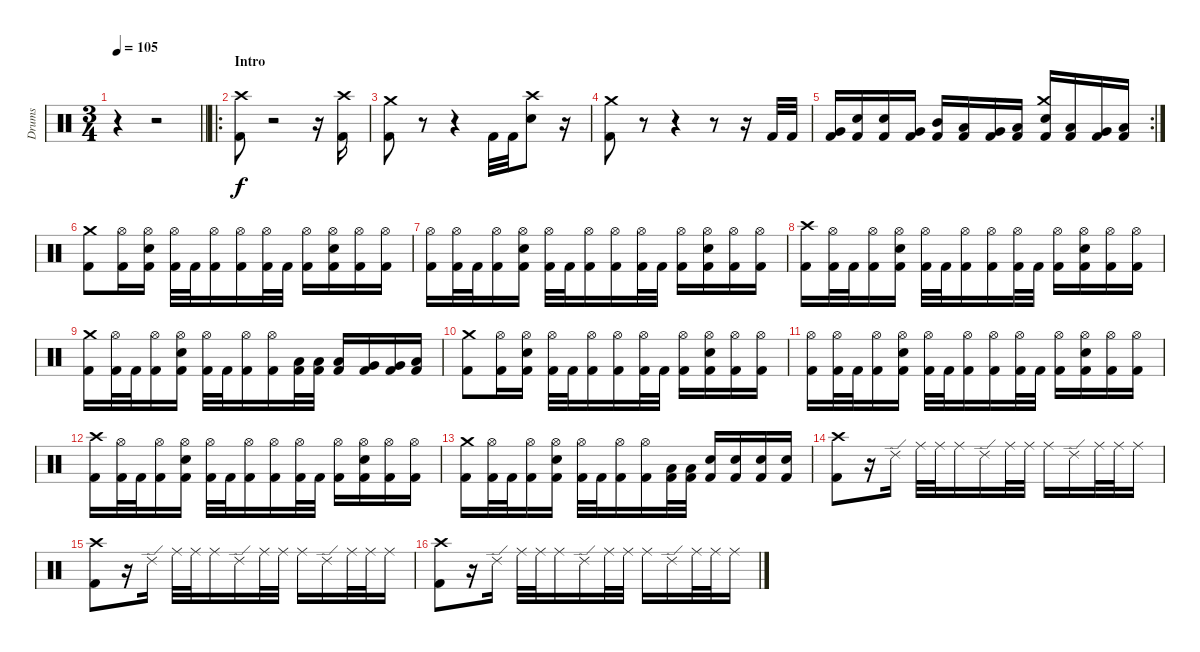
\track ("Drums" "Drums") {instrument percussion}
\staff {score}
\articulation defaults
\ts (3 4)
\tempo 105
\clef neutral
\barLineRight lightlight
\ks c
r.4{dy f} r.2 |
\ro
\section ("" "Intro")
("Kick (hit) 2" "Crash high (hit)").8 r.2 r.16 ("Kick (hit) 2" "Crash high (hit)").16 |
("Kick (hit) 2" "Crash medium (hit)").8 r.8 r.4 "Kick (hit) 2".32 "Kick (hit) 2".32 ("Electric Snare (hit)" "Crash high (hit)").8 r.16 |
("Kick (hit) 2" "Crash medium (hit)").8 r.8 r.4 r.8 r.16 "Kick (hit) 2".32 "Kick (hit) 2".32 |
\rc 2
("Kick (hit) 2" "Very Low Tom (hit)").16 ("Kick (hit) 2" "Electric Snare (hit)").16 ("Kick (hit) 2" "Electric Snare (hit)").16 ("Kick (hit) 2" "Very Low Tom (hit)").16 ("Kick (hit) 2" "Mid Tom (hit)").16 ("Kick (hit) 2" "Low Tom (hit)").16 ("Kick (hit) 2" "Very Low Tom (hit)").16 ("Kick (hit) 2" "Low Tom (hit)").16 ("Kick (hit) 2" "Electric Snare (hit)" "Crash medium (hit)").16 ("Kick (hit) 2" "Low Tom (hit)").16 ("Kick (hit) 2" "Very Low Tom (hit)").16 ("Kick (hit) 2" "Low Floor Tom (hit)").16 |
("Kick (hit) 2" "Crash medium (hit)").8 ("Kick (hit) 2" "Hi-Hat (open)").16 ("Kick (hit) 2" "Electric Snare (hit)" "Hi-Hat (open)").16 ("Kick (hit) 2" "Hi-Hat (open)").32 "Kick (hit) 2".32 ("Kick (hit) 2" "Hi-Hat (open)").16 ("Kick (hit) 2" "Hi-Hat (open)").16 ("Kick (hit) 2" "Hi-Hat (open)").32 "Kick (hit) 2".32 ("Kick (hit) 2" "Hi-Hat (open)").16 ("Kick (hit) 2" "Electric Snare (hit)" "Hi-Hat (open)").16 ("Kick (hit) 2" "Hi-Hat (open)").16 ("Kick (hit) 2" "Hi-Hat (open)").16 |
("Kick (hit) 2" "Hi-Hat (open)").16 ("Kick (hit) 2" "Hi-Hat (open)").32 "Kick (hit) 2".32 ("Kick (hit) 2" "Hi-Hat (open)").16 ("Kick (hit) 2" "Electric Snare (hit)" "Hi-Hat (open)").16 ("Kick (hit) 2" "Hi-Hat (open)").32 "Kick (hit) 2".32 ("Kick (hit) 2" "Hi-Hat (open)").16 ("Kick (hit) 2" "Hi-Hat (open)").16 ("Kick (hit) 2" "Hi-Hat (open)").32 "Kick (hit) 2".32 ("Kick (hit) 2" "Hi-Hat (open)").16 ("Kick (hit) 2" "Electric Snare (hit)" "Hi-Hat (open)").16 ("Kick (hit) 2" "Hi-Hat (open)").16 ("Kick (hit) 2" "Hi-Hat (open)").16 |
("Kick (hit) 2" "Crash high (hit)").16 ("Kick (hit) 2" "Hi-Hat (open)").32 "Kick (hit) 2".32 ("Kick (hit) 2" "Hi-Hat (open)").16 ("Kick (hit) 2" "Electric Snare (hit)" "Hi-Hat (open)").16 ("Kick (hit) 2" "Hi-Hat (open)").32 "Kick (hit) 2".32 ("Kick (hit) 2" "Hi-Hat (open)").16 ("Kick (hit) 2" "Hi-Hat (open)").16 ("Kick (hit) 2" "Hi-Hat (open)").32 "Kick (hit) 2".32 ("Kick (hit) 2" "Hi-Hat (open)").16 ("Kick (hit) 2" "Electric Snare (hit)" "Hi-Hat (open)").16 ("Kick (hit) 2" "Hi-Hat (open)").16 ("Kick (hit) 2" "Hi-Hat (open)").16 |
("Kick (hit) 2" "Crash medium (hit)").16 ("Kick (hit) 2" "Hi-Hat (open)").32 "Kick (hit) 2".32 ("Kick (hit) 2" "Hi-Hat (open)").16 ("Kick (hit) 2" "Electric Snare (hit)" "Hi-Hat (open)").16 ("Kick (hit) 2" "Hi-Hat (open)").32 "Kick (hit) 2".32 ("Kick (hit) 2" "Hi-Hat (open)").16 ("Kick (hit) 2" "Hi-Hat (open)").16 ("Kick (hit) 2" "Low Tom (hit)").32 ("Kick (hit) 2" "Low Tom (hit)").32 ("Kick (hit) 2" "Low Tom (hit)").16 ("Kick (hit) 2" "Very Low Tom (hit)").16 ("Kick (hit) 2" "Very Low Tom (hit)").16 ("Kick (hit) 2" "Low Floor Tom (hit)").16 |
("Kick (hit) 2" "Crash medium (hit)").8 ("Kick (hit) 2" "Hi-Hat (open)").16 ("Kick (hit) 2" "Electric Snare (hit)" "Hi-Hat (open)").16 ("Kick (hit) 2" "Hi-Hat (open)").32 "Kick (hit) 2".32 ("Kick (hit) 2" "Hi-Hat (open)").16 ("Kick (hit) 2" "Hi-Hat (open)").16 ("Kick (hit) 2" "Hi-Hat (open)").32 "Kick (hit) 2".32 ("Kick (hit) 2" "Hi-Hat (open)").16 ("Kick (hit) 2" "Electric Snare (hit)" "Hi-Hat (open)").16 ("Kick (hit) 2" "Hi-Hat (open)").16 ("Kick (hit) 2" "Hi-Hat (open)").16 |
("Kick (hit) 2" "Hi-Hat (open)").16 ("Kick (hit) 2" "Hi-Hat (open)").32 "Kick (hit) 2".32 ("Kick (hit) 2" "Hi-Hat (open)").16 ("Kick (hit) 2" "Electric Snare (hit)" "Hi-Hat (open)").16 ("Kick (hit) 2" "Hi-Hat (open)").32 "Kick (hit) 2".32 ("Kick (hit) 2" "Hi-Hat (open)").16 ("Kick (hit) 2" "Hi-Hat (open)").16 ("Kick (hit) 2" "Hi-Hat (open)").32 "Kick (hit) 2".32 ("Kick (hit) 2" "Hi-Hat (open)").16 ("Kick (hit) 2" "Electric Snare (hit)" "Hi-Hat (open)").16 ("Kick (hit) 2" "Hi-Hat (open)").16 ("Kick (hit) 2" "Hi-Hat (open)").16 |
("Kick (hit) 2" "Crash high (hit)").16 ("Kick (hit) 2" "Hi-Hat (open)").32 "Kick (hit) 2".32 ("Kick (hit) 2" "Hi-Hat (open)").16 ("Kick (hit) 2" "Electric Snare (hit)" "Hi-Hat (open)").16 ("Kick (hit) 2" "Hi-Hat (open)").32 "Kick (hit) 2".32 ("Kick (hit) 2" "Hi-Hat (open)").16 ("Kick (hit) 2" "Hi-Hat (open)").16 ("Kick (hit) 2" "Hi-Hat (open)").32 "Kick (hit) 2".32 ("Kick (hit) 2" "Hi-Hat (open)").16 ("Kick (hit) 2" "Electric Snare (hit)" "Hi-Hat (open)").16 ("Kick (hit) 2" "Hi-Hat (open)").16 ("Kick (hit) 2" "Hi-Hat (open)").16 |
("Kick (hit) 2" "Crash medium (hit)").16 ("Kick (hit) 2" "Hi-Hat (open)").32 "Kick (hit) 2".32 ("Kick (hit) 2" "Hi-Hat (open)").16 ("Kick (hit) 2" "Electric Snare (hit)" "Hi-Hat (open)").16 ("Kick (hit) 2" "Hi-Hat (open)").32 "Kick (hit) 2".32 ("Kick (hit) 2" "Hi-Hat (open)").16 ("Kick (hit) 2" "Hi-Hat (open)").16 ("Kick (hit) 2" "Low Tom (hit)").32 ("Kick (hit) 2" "Low Tom (hit)").32 ("Kick (hit) 2" "Electric Snare (hit)").16 ("Kick (hit) 2" "Electric Snare (hit)").16 ("Kick (hit) 2" "Electric Snare (hit)").16 ("Kick (hit) 2" "Electric Snare (hit)").16 |
("Kick (hit) 2" "Crash high (hit)").8 r.16 "Ride (edge) 2".16 "Ride (middle)".32 "Ride (middle)".32 "Ride (middle)".16 "Ride (edge) 2".16 "Ride (middle)".32 "Ride (middle)".32 "Ride (middle)".16 "Ride (edge) 2".16 "Ride (middle)".32 "Ride (middle)".32 "Ride (middle)".16 |
("Kick (hit) 2" "Crash high (hit)").8 r.16 "Ride (edge) 2".16 "Ride (middle)".32 "Ride (middle)".32 "Ride (middle)".16 "Ride (edge) 2".16 "Ride (middle)".32 "Ride (middle)".32 "Ride (middle)".16 "Ride (edge) 2".16 "Ride (middle)".32 "Ride (middle)".32 "Ride (middle)".16 |
("Kick (hit) 2" "Crash high (hit)").8 r.16 "Ride (edge) 2".16 "Ride (middle)".32 "Ride (middle)".32 "Ride (middle)".16 "Ride (edge) 2".16 "Ride (middle)".32 "Ride (middle)".32 "Ride (middle)".16 "Ride (edge) 2".16 "Ride (middle)".32 "Ride (middle)".32 "Ride (middle)".16
